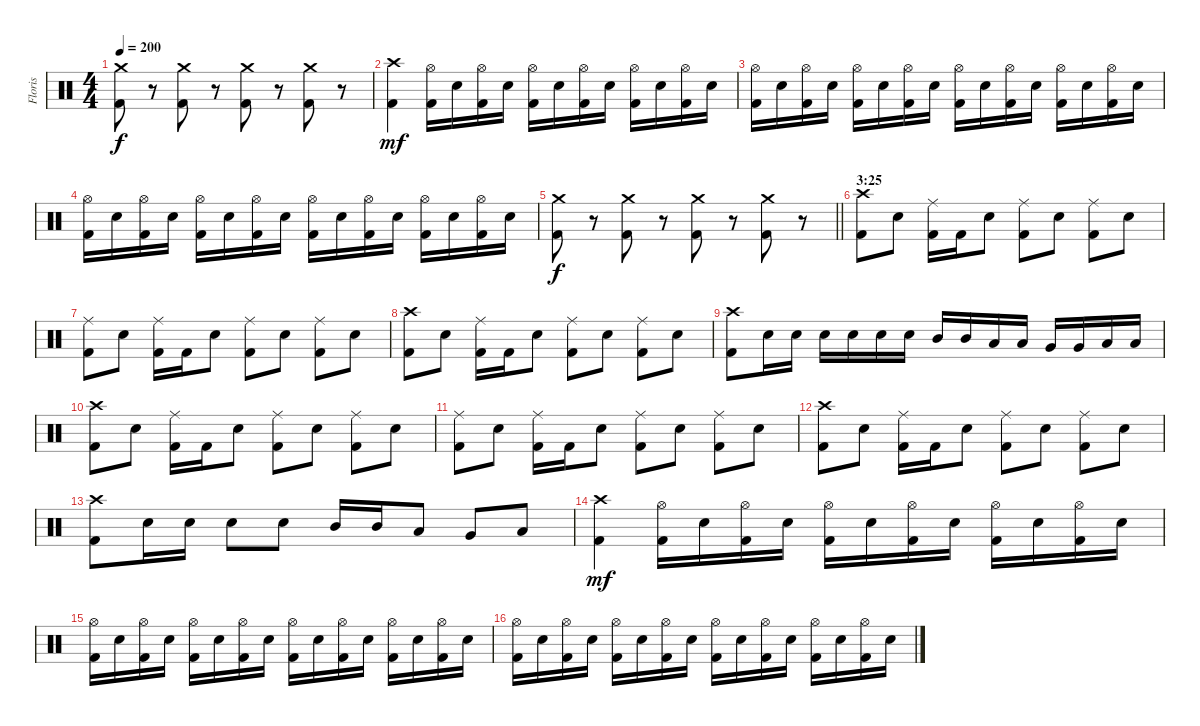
\track ("Floris" "Floris") {instrument percussion}
\staff {score}
\articulation defaults
\ts (4 4)
\tempo 200
\clef neutral
\ks c
("Crash medium (hit)" "Kick (hit) 2").8{dy f} r.8{volume 0} ("Crash medium (hit)" "Kick (hit) 2").8{volume 16} r.8{volume 0} ("Crash medium (hit)" "Kick (hit) 2").8{volume 16} r.8{volume 0} ("Crash medium (hit)" "Kick (hit) 2").8{volume 16} r.8{volume 0} |
("Crash high (hit)" "Kick (hit) 2").4{dy mf volume 16} ("Hi-Hat (open)" "Kick (hit) 2").16 "Electric Snare (hit)".16 ("Hi-Hat (open)" "Kick (hit) 2").16 "Electric Snare (hit)".16 ("Hi-Hat (open)" "Kick (hit) 2").16 "Electric Snare (hit)".16 ("Hi-Hat (open)" "Kick (hit) 2").16 "Electric Snare (hit)".16 ("Hi-Hat (open)" "Kick (hit) 2").16 "Electric Snare (hit)".16 ("Hi-Hat (open)" "Kick (hit) 2").16 "Electric Snare (hit)".16 |
("Hi-Hat (open)" "Kick (hit) 2").16 "Electric Snare (hit)".16 ("Hi-Hat (open)" "Kick (hit) 2").16 "Electric Snare (hit)".16 ("Hi-Hat (open)" "Kick (hit) 2").16 "Electric Snare (hit)".16 ("Hi-Hat (open)" "Kick (hit) 2").16 "Electric Snare (hit)".16 ("Hi-Hat (open)" "Kick (hit) 2").16 "Electric Snare (hit)".16 ("Hi-Hat (open)" "Kick (hit) 2").16 "Electric Snare (hit)".16 ("Hi-Hat (open)" "Kick (hit) 2").16 "Electric Snare (hit)".16 ("Hi-Hat (open)" "Kick (hit) 2").16 "Electric Snare (hit)".16 |
("Hi-Hat (open)" "Kick (hit) 2").16 "Electric Snare (hit)".16 ("Hi-Hat (open)" "Kick (hit) 2").16 "Electric Snare (hit)".16 ("Hi-Hat (open)" "Kick (hit) 2").16 "Electric Snare (hit)".16 ("Hi-Hat (open)" "Kick (hit) 2").16 "Electric Snare (hit)".16 ("Hi-Hat (open)" "Kick (hit) 2").16 "Electric Snare (hit)".16 ("Hi-Hat (open)" "Kick (hit) 2").16 "Electric Snare (hit)".16 ("Hi-Hat (open)" "Kick (hit) 2").16 "Electric Snare (hit)".16 ("Hi-Hat (open)" "Kick (hit) 2").16 "Electric Snare (hit)".16 |
\barLineRight lightlight
("Crash medium (hit)" "Kick (hit) 2").8{dy f} r.8{volume 0} ("Crash medium (hit)" "Kick (hit) 2").8{volume 16} r.8{volume 0} ("Crash medium (hit)" "Kick (hit) 2").8{volume 16} r.8{volume 0} ("Crash medium (hit)" "Kick (hit) 2").8{volume 16} r.8{volume 0} |
\section ("" "3:25")
("Crash high (hit)" "Kick (hit) 2").8{volume 16} "Electric Snare (hit)".8 ("Ride (middle)" "Kick (hit) 2").16 "Kick (hit) 2".16 "Electric Snare (hit)".8 ("Ride (middle)" "Kick (hit) 2").8 "Electric Snare (hit)".8 ("Ride (middle)" "Kick (hit) 2").8 "Electric Snare (hit)".8 |
("Ride (middle)" "Kick (hit) 2").8 "Electric Snare (hit)".8 ("Ride (middle)" "Kick (hit) 2").16 "Kick (hit) 2".16 "Electric Snare (hit)".8 ("Ride (middle)" "Kick (hit) 2").8 "Electric Snare (hit)".8 ("Ride (middle)" "Kick (hit) 2").8 "Electric Snare (hit)".8 |
("Crash high (hit)" "Kick (hit) 2").8 "Electric Snare (hit)".8 ("Ride (middle)" "Kick (hit) 2").16 "Kick (hit) 2".16 "Electric Snare (hit)".8 ("Ride (middle)" "Kick (hit) 2").8 "Electric Snare (hit)".8 ("Ride (middle)" "Kick (hit) 2").8 "Electric Snare (hit)".8 |
("Crash high (hit)" "Kick (hit) 2").8 "Electric Snare (hit)".16 "Electric Snare (hit)".16 "Electric Snare (hit)".16 "Electric Snare (hit)".16 "Electric Snare (hit)".16 "Electric Snare (hit)".16 "Mid Tom (hit)".16 "Mid Tom (hit)".16 "Low Tom (hit)".16 "Low Tom (hit)".16 "Very Low Tom (hit)".16 "Very Low Tom (hit)".16 "Low Floor Tom (hit)".16 "Low Floor Tom (hit)".16 |
("Crash high (hit)" "Kick (hit) 2").8 "Electric Snare (hit)".8 ("Ride (middle)" "Kick (hit) 2").16 "Kick (hit) 2".16 "Electric Snare (hit)".8 ("Ride (middle)" "Kick (hit) 2").8 "Electric Snare (hit)".8 ("Ride (middle)" "Kick (hit) 2").8 "Electric Snare (hit)".8 |
("Ride (middle)" "Kick (hit) 2").8 "Electric Snare (hit)".8 ("Ride (middle)" "Kick (hit) 2").16 "Kick (hit) 2".16 "Electric Snare (hit)".8 ("Ride (middle)" "Kick (hit) 2").8 "Electric Snare (hit)".8 ("Ride (middle)" "Kick (hit) 2").8 "Electric Snare (hit)".8 |
("Crash high (hit)" "Kick (hit) 2").8 "Electric Snare (hit)".8 ("Ride (middle)" "Kick (hit) 2").16 "Kick (hit) 2".16 "Electric Snare (hit)".8 ("Ride (middle)" "Kick (hit) 2").8 "Electric Snare (hit)".8 ("Ride (middle)" "Kick (hit) 2").8 "Electric Snare (hit)".8 |
("Crash high (hit)" "Kick (hit) 2").8 "Electric Snare (hit)".16 "Electric Snare (hit)".16 "Electric Snare (hit)".8 "Electric Snare (hit)".8 "Mid Tom (hit)".16 "Mid Tom (hit)".16 "Low Tom (hit)".8 "Very Low Tom (hit)".8 "Low Floor Tom (hit)".8 |
("Crash high (hit)" "Kick (hit) 2").4{dy mf volume 16} ("Hi-Hat (open)" "Kick (hit) 2").16 "Electric Snare (hit)".16 ("Hi-Hat (open)" "Kick (hit) 2").16 "Electric Snare (hit)".16 ("Hi-Hat (open)" "Kick (hit) 2").16 "Electric Snare (hit)".16 ("Hi-Hat (open)" "Kick (hit) 2").16 "Electric Snare (hit)".16 ("Hi-Hat (open)" "Kick (hit) 2").16 "Electric Snare (hit)".16 ("Hi-Hat (open)" "Kick (hit) 2").16 "Electric Snare (hit)".16 |
("Hi-Hat (open)" "Kick (hit) 2").16 "Electric Snare (hit)".16 ("Hi-Hat (open)" "Kick (hit) 2").16 "Electric Snare (hit)".16 ("Hi-Hat (open)" "Kick (hit) 2").16 "Electric Snare (hit)".16 ("Hi-Hat (open)" "Kick (hit) 2").16 "Electric Snare (hit)".16 ("Hi-Hat (open)" "Kick (hit) 2").16 "Electric Snare (hit)".16 ("Hi-Hat (open)" "Kick (hit) 2").16 "Electric Snare (hit)".16 ("Hi-Hat (open)" "Kick (hit) 2").16 "Electric Snare (hit)".16 ("Hi-Hat (open)" "Kick (hit) 2").16 "Electric Snare (hit)".16 |
("Hi-Hat (open)" "Kick (hit) 2").16 "Electric Snare (hit)".16 ("Hi-Hat (open)" "Kick (hit) 2").16 "Electric Snare (hit)".16 ("Hi-Hat (open)" "Kick (hit) 2").16 "Electric Snare (hit)".16 ("Hi-Hat (open)" "Kick (hit) 2").16 "Electric Snare (hit)".16 ("Hi-Hat (open)" "Kick (hit) 2").16 "Electric Snare (hit)".16 ("Hi-Hat (open)" "Kick (hit) 2").16 "Electric Snare (hit)".16 ("Hi-Hat (open)" "Kick (hit) 2").16 "Electric Snare (hit)".16 ("Hi-Hat (open)" "Kick (hit) 2").16 "Electric Snare (hit)".16
